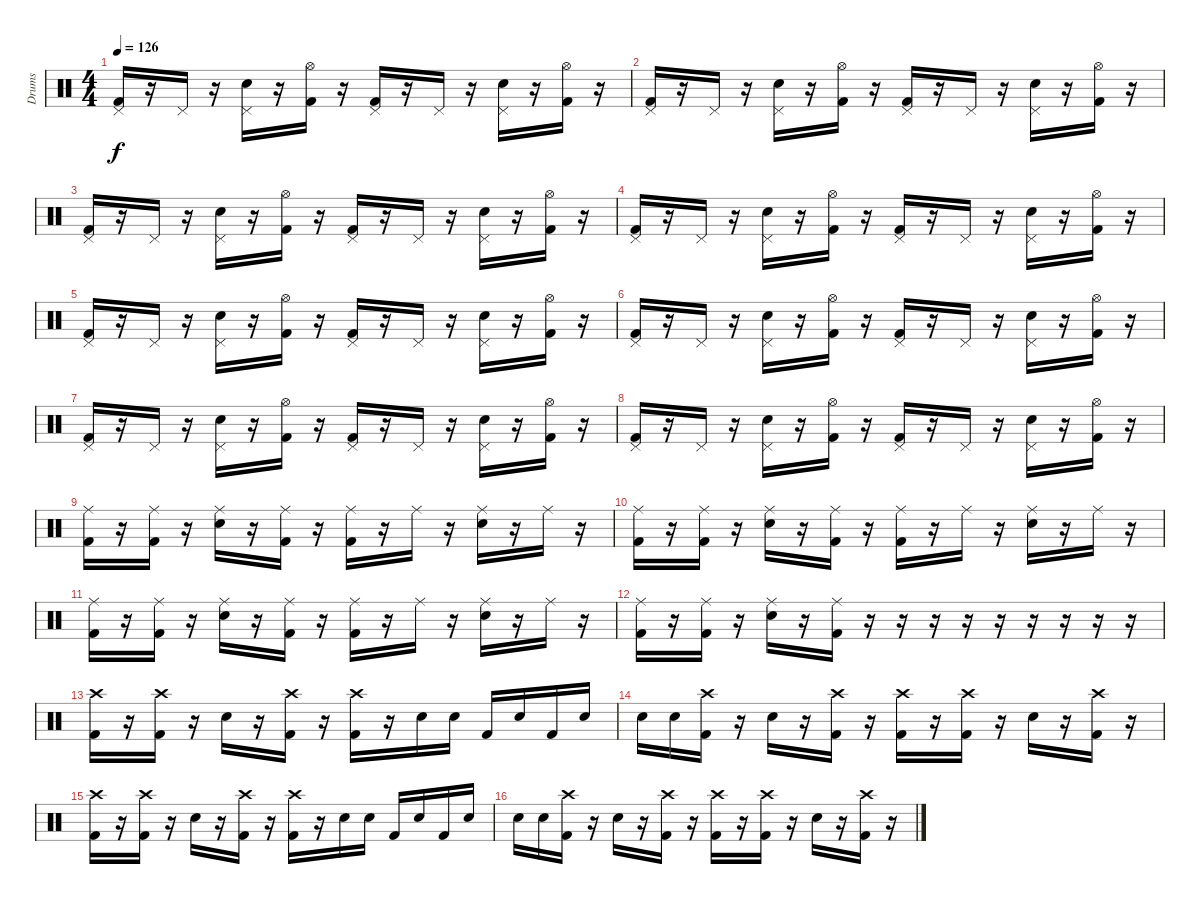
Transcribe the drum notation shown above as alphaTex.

\track ("Drums" "Drums") {instrument percussion}
\staff {score}
\articulation defaults
\ts (4 4)
\tempo 126
\clef neutral
\ks c
("Pedal Hi-Hat (hit)" "Kick (hit) 2").16{dy f} r.16 "Pedal Hi-Hat (hit)".16 r.16 ("Pedal Hi-Hat (hit)" "Electric Snare (hit)").16 r.16 ("Hi-Hat (open)" "Kick (hit) 2").16 r.16 ("Pedal Hi-Hat (hit)" "Kick (hit) 2").16 r.16 "Pedal Hi-Hat (hit)".16 r.16 ("Pedal Hi-Hat (hit)" "Electric Snare (hit)").16 r.16 ("Hi-Hat (open)" "Kick (hit) 2").16 r.16 |
("Pedal Hi-Hat (hit)" "Kick (hit) 2").16 r.16 "Pedal Hi-Hat (hit)".16 r.16 ("Pedal Hi-Hat (hit)" "Electric Snare (hit)").16 r.16 ("Hi-Hat (open)" "Kick (hit) 2").16 r.16 ("Pedal Hi-Hat (hit)" "Kick (hit) 2").16 r.16 "Pedal Hi-Hat (hit)".16 r.16 ("Pedal Hi-Hat (hit)" "Electric Snare (hit)").16 r.16 ("Hi-Hat (open)" "Kick (hit) 2").16 r.16 |
("Pedal Hi-Hat (hit)" "Kick (hit) 2").16 r.16 "Pedal Hi-Hat (hit)".16 r.16 ("Pedal Hi-Hat (hit)" "Electric Snare (hit)").16 r.16 ("Hi-Hat (open)" "Kick (hit) 2").16 r.16 ("Pedal Hi-Hat (hit)" "Kick (hit) 2").16 r.16 "Pedal Hi-Hat (hit)".16 r.16 ("Pedal Hi-Hat (hit)" "Electric Snare (hit)").16 r.16 ("Hi-Hat (open)" "Kick (hit) 2").16 r.16 |
("Pedal Hi-Hat (hit)" "Kick (hit) 2").16 r.16 "Pedal Hi-Hat (hit)".16 r.16 ("Pedal Hi-Hat (hit)" "Electric Snare (hit)").16 r.16 ("Hi-Hat (open)" "Kick (hit) 2").16 r.16 ("Pedal Hi-Hat (hit)" "Kick (hit) 2").16 r.16 "Pedal Hi-Hat (hit)".16 r.16 ("Pedal Hi-Hat (hit)" "Electric Snare (hit)").16 r.16 ("Hi-Hat (open)" "Kick (hit) 2").16 r.16 |
("Pedal Hi-Hat (hit)" "Kick (hit) 2").16 r.16 "Pedal Hi-Hat (hit)".16 r.16 ("Pedal Hi-Hat (hit)" "Electric Snare (hit)").16 r.16 ("Hi-Hat (open)" "Kick (hit) 2").16 r.16 ("Pedal Hi-Hat (hit)" "Kick (hit) 2").16 r.16 "Pedal Hi-Hat (hit)".16 r.16 ("Pedal Hi-Hat (hit)" "Electric Snare (hit)").16 r.16 ("Hi-Hat (open)" "Kick (hit) 2").16 r.16 |
("Pedal Hi-Hat (hit)" "Kick (hit) 2").16 r.16 "Pedal Hi-Hat (hit)".16 r.16 ("Pedal Hi-Hat (hit)" "Electric Snare (hit)").16 r.16 ("Hi-Hat (open)" "Kick (hit) 2").16 r.16 ("Pedal Hi-Hat (hit)" "Kick (hit) 2").16 r.16 "Pedal Hi-Hat (hit)".16 r.16 ("Pedal Hi-Hat (hit)" "Electric Snare (hit)").16 r.16 ("Hi-Hat (open)" "Kick (hit) 2").16 r.16 |
("Pedal Hi-Hat (hit)" "Kick (hit) 2").16 r.16 "Pedal Hi-Hat (hit)".16 r.16 ("Pedal Hi-Hat (hit)" "Electric Snare (hit)").16 r.16 ("Hi-Hat (open)" "Kick (hit) 2").16 r.16 ("Pedal Hi-Hat (hit)" "Kick (hit) 2").16 r.16 "Pedal Hi-Hat (hit)".16 r.16 ("Pedal Hi-Hat (hit)" "Electric Snare (hit)").16 r.16 ("Hi-Hat (open)" "Kick (hit) 2").16 r.16 |
("Pedal Hi-Hat (hit)" "Kick (hit) 2").16 r.16 "Pedal Hi-Hat (hit)".16 r.16 ("Pedal Hi-Hat (hit)" "Electric Snare (hit)").16 r.16 ("Hi-Hat (open)" "Kick (hit) 2").16 r.16 ("Pedal Hi-Hat (hit)" "Kick (hit) 2").16 r.16 "Pedal Hi-Hat (hit)".16 r.16 ("Pedal Hi-Hat (hit)" "Electric Snare (hit)").16 r.16 ("Hi-Hat (open)" "Kick (hit) 2").16 r.16 |
("Ride (middle)" "Kick (hit) 2").16 r.16 ("Ride (middle)" "Kick (hit) 2").16 r.16 ("Ride (middle)" "Electric Snare (hit)").16 r.16 ("Ride (middle)" "Kick (hit) 2").16 r.16 ("Ride (middle)" "Kick (hit) 2").16 r.16 "Ride (middle)".16 r.16 ("Ride (middle)" "Electric Snare (hit)").16 r.16 "Ride (middle)".16 r.16 |
("Ride (middle)" "Kick (hit) 2").16 r.16 ("Ride (middle)" "Kick (hit) 2").16 r.16 ("Ride (middle)" "Electric Snare (hit)").16 r.16 ("Ride (middle)" "Kick (hit) 2").16 r.16 ("Ride (middle)" "Kick (hit) 2").16 r.16 "Ride (middle)".16 r.16 ("Ride (middle)" "Electric Snare (hit)").16 r.16 "Ride (middle)".16 r.16 |
("Ride (middle)" "Kick (hit) 2").16 r.16 ("Ride (middle)" "Kick (hit) 2").16 r.16 ("Ride (middle)" "Electric Snare (hit)").16 r.16 ("Ride (middle)" "Kick (hit) 2").16 r.16 ("Ride (middle)" "Kick (hit) 2").16 r.16 "Ride (middle)".16 r.16 ("Ride (middle)" "Electric Snare (hit)").16 r.16 "Ride (middle)".16 r.16 |
("Ride (middle)" "Kick (hit) 2").16 r.16 ("Ride (middle)" "Kick (hit) 2").16 r.16 ("Ride (middle)" "Electric Snare (hit)").16 r.16 ("Ride (middle)"{x} "Kick (hit) 2").16 r.16 r.16 r.16 r.16 r.16 r.16 r.16 r.16 r.16 |
("Crash high (hit)" "Kick (hit) 2").16 r.16 ("Crash high (hit)" "Kick (hit) 2").16 r.16 "Electric Snare (hit)".16 r.16 ("Crash high (hit)" "Kick (hit) 2").16 r.16 ("Crash high (hit)" "Kick (hit) 2").16 r.16 "Electric Snare (hit)".16 "Electric Snare (hit)".16 "Kick (hit) 2".16 "Electric Snare (hit)".16 "Kick (hit) 2".16 "Electric Snare (hit)".16 |
"Electric Snare (hit)".16 "Electric Snare (hit)".16 ("Crash high (hit)" "Kick (hit) 2").16 r.16 "Electric Snare (hit)".16 r.16 ("Crash high (hit)" "Kick (hit) 2").16 r.16 ("Crash high (hit)" "Kick (hit) 2").16 r.16 ("Crash high (hit)" "Kick (hit) 2").16 r.16 "Electric Snare (hit)".16 r.16 ("Crash high (hit)" "Kick (hit) 2").16 r.16 |
("Crash high (hit)" "Kick (hit) 2").16 r.16 ("Crash high (hit)" "Kick (hit) 2").16 r.16 "Electric Snare (hit)".16 r.16 ("Crash high (hit)" "Kick (hit) 2").16 r.16 ("Crash high (hit)" "Kick (hit) 2").16 r.16 "Electric Snare (hit)".16 "Electric Snare (hit)".16 "Kick (hit) 2".16 "Electric Snare (hit)".16 "Kick (hit) 2".16 "Electric Snare (hit)".16 |
"Electric Snare (hit)".16 "Electric Snare (hit)".16 ("Crash high (hit)" "Kick (hit) 2").16 r.16 "Electric Snare (hit)".16 r.16 ("Crash high (hit)" "Kick (hit) 2").16 r.16 ("Crash high (hit)" "Kick (hit) 2").16 r.16 ("Crash high (hit)" "Kick (hit) 2").16 r.16 "Electric Snare (hit)".16 r.16 ("Crash high (hit)" "Kick (hit) 2").16 r.16
